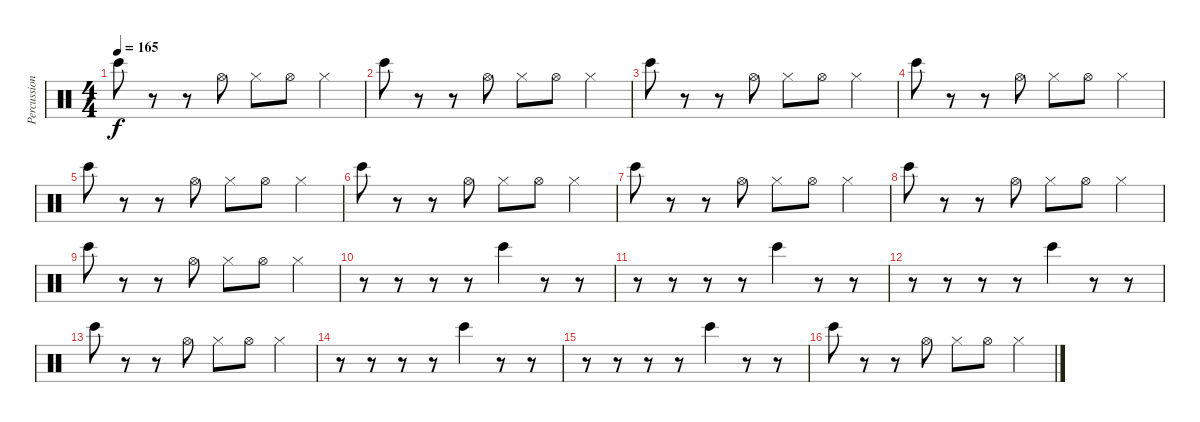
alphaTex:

\track ("Percussion" "Percussion") {instrument percussion}
\staff {score}
\articulation defaults
\ts (4 4)
\tempo 165
\clef neutral
\ks c "Bongo High (hit)".8{dy f}
r.8 r.8 "Hi-Hat (open)".8 "Hi-Hat (closed)".8 "Hi-Hat (open)".8 "Hi-Hat (closed)".4 |
"Bongo High (hit)".8 r.8 r.8 "Hi-Hat (open)".8 "Hi-Hat (closed)".8 "Hi-Hat (open)".8 "Hi-Hat (closed)".4 |
"Bongo High (hit)".8 r.8 r.8 "Hi-Hat (open)".8 "Hi-Hat (closed)".8 "Hi-Hat (open)".8 "Hi-Hat (closed)".4 |
"Bongo High (hit)".8 r.8 r.8 "Hi-Hat (open)".8 "Hi-Hat (closed)".8 "Hi-Hat (open)".8 "Hi-Hat (closed)".4 |
"Bongo High (hit)".8 r.8 r.8 "Hi-Hat (open)".8 "Hi-Hat (closed)".8 "Hi-Hat (open)".8 "Hi-Hat (closed)".4 |
"Bongo High (hit)".8 r.8 r.8 "Hi-Hat (open)".8 "Hi-Hat (closed)".8 "Hi-Hat (open)".8 "Hi-Hat (closed)".4 |
"Bongo High (hit)".8 r.8 r.8 "Hi-Hat (open)".8 "Hi-Hat (closed)".8 "Hi-Hat (open)".8 "Hi-Hat (closed)".4 |
"Bongo High (hit)".8 r.8 r.8 "Hi-Hat (open)".8 "Hi-Hat (closed)".8 "Hi-Hat (open)".8 "Hi-Hat (closed)".4 |
"Bongo High (hit)".8 r.8 r.8 "Hi-Hat (open)".8 "Hi-Hat (closed)".8 "Hi-Hat (open)".8 "Hi-Hat (closed)".4 |
r.8 r.8 r.8 r.8 "Bongo High (hit)".4 r.8 r.8 |
r.8 r.8 r.8 r.8 "Bongo High (hit)".4 r.8 r.8 |
r.8 r.8 r.8 r.8 "Bongo High (hit)".4 r.8 r.8 |
"Bongo High (hit)".8 r.8 r.8 "Hi-Hat (open)".8 "Hi-Hat (closed)".8 "Hi-Hat (open)".8 "Hi-Hat (closed)".4 |
r.8 r.8 r.8 r.8 "Bongo High (hit)".4 r.8 r.8 |
r.8 r.8 r.8 r.8 "Bongo High (hit)".4 r.8 r.8 |
"Bongo High (hit)".8 r.8 r.8 "Hi-Hat (open)".8 "Hi-Hat (closed)".8 "Hi-Hat (open)".8 "Hi-Hat (closed)".4
